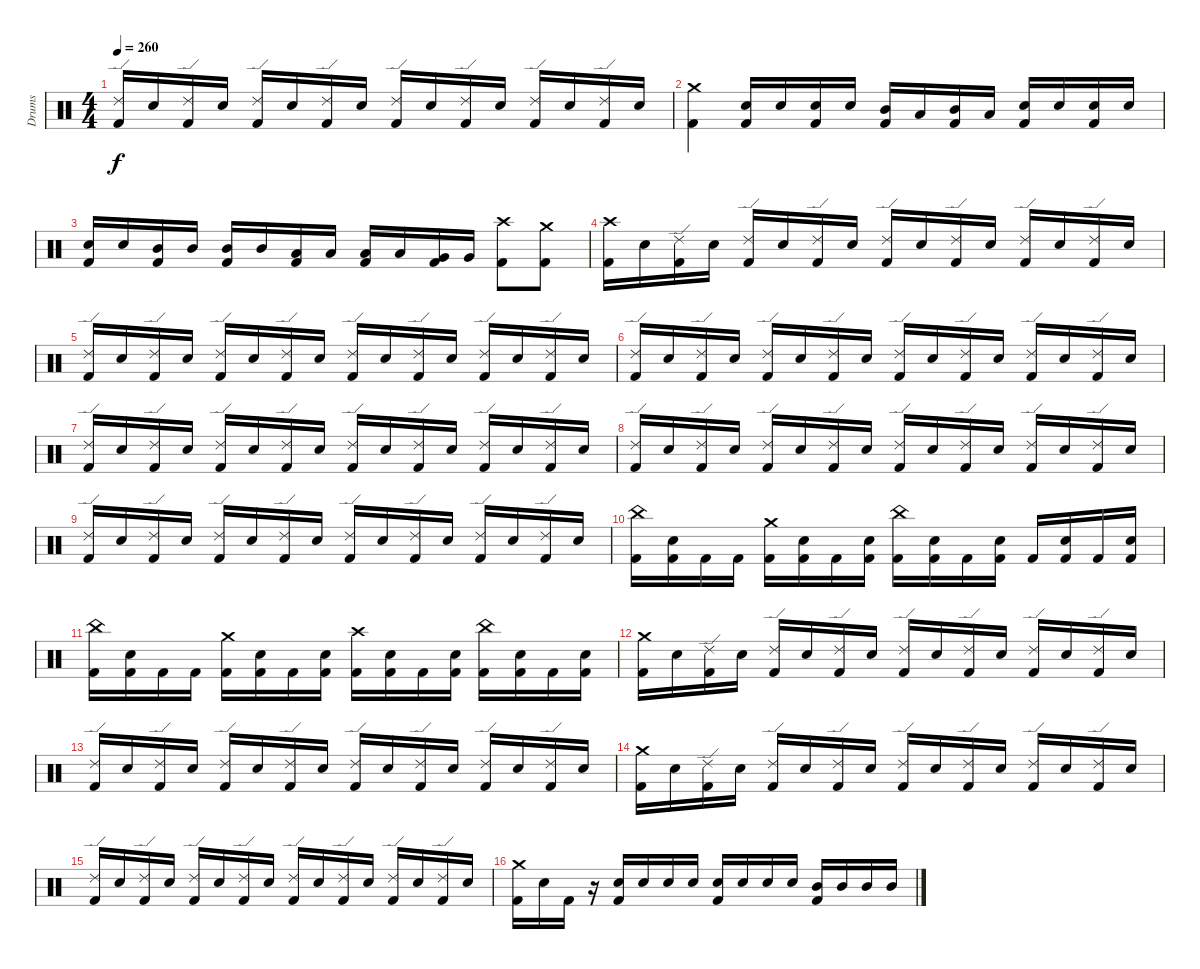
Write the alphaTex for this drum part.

\track ("Drums" "Drums") {instrument percussion}
\staff {score}
\articulation defaults
\ts (4 4)
\tempo 260
\clef neutral
\ks c
("Ride (edge) 2" "Kick (hit) 2").16{dy f} "Snare (hit) 2".16 ("Ride (edge) 2" "Kick (hit) 2").16 "Snare (hit) 2".16 ("Ride (edge) 2" "Kick (hit) 2").16 "Snare (hit) 2".16 ("Ride (edge) 2" "Kick (hit) 2").16 "Snare (hit) 2".16 ("Ride (edge) 2" "Kick (hit) 2").16 "Snare (hit) 2".16 ("Ride (edge) 2" "Kick (hit) 2").16 "Snare (hit) 2".16 ("Ride (edge) 2" "Kick (hit) 2").16 "Snare (hit) 2".16 ("Ride (edge) 2" "Kick (hit) 2").16 "Snare (hit) 2".16 |
("Crash medium (hit)" "Kick (hit) 2").4 ("Snare (hit) 2" "Kick (hit) 2").16 "Snare (hit) 2".16 ("Snare (hit) 2" "Kick (hit) 2").16 "Snare (hit) 2".16 ("Mid Tom (hit)" "Kick (hit) 2").16 "Low Tom (hit)".16 ("Mid Tom (hit)" "Kick (hit) 2").16 "Low Tom (hit)".16 ("Snare (hit) 2" "Kick (hit) 2").16 "Snare (hit) 2".16 ("Snare (hit) 2" "Kick (hit) 2").16 "Snare (hit) 2".16 |
("Snare (hit) 2" "Kick (hit) 2").16 "Snare (hit) 2".16 ("Mid Tom (hit)" "Kick (hit) 2").16 "Mid Tom (hit)".16 ("Mid Tom (hit)" "Kick (hit) 2").16 "Mid Tom (hit)".16 ("Low Tom (hit)" "Kick (hit) 2").16 "Low Tom (hit)".16 ("Low Tom (hit)" "Kick (hit) 2").16 "Low Tom (hit)".16 ("Very Low Tom (hit)" "Kick (hit) 2").16 "Very Low Tom (hit)".16 ("Crash high (hit)" "Kick (hit) 2").8 ("Crash medium (hit)" "Kick (hit) 2").8 |
("Crash high (hit)" "Kick (hit) 2").16 "Snare (hit) 2".16 ("Ride (edge) 2" "Kick (hit) 2").16 "Snare (hit) 2".16 ("Ride (edge) 2" "Kick (hit) 2").16 "Snare (hit) 2".16 ("Ride (edge) 2" "Kick (hit) 2").16 "Snare (hit) 2".16 ("Ride (edge) 2" "Kick (hit) 2").16 "Snare (hit) 2".16 ("Ride (edge) 2" "Kick (hit) 2").16 "Snare (hit) 2".16 ("Ride (edge) 2" "Kick (hit) 2").16 "Snare (hit) 2".16 ("Ride (edge) 2" "Kick (hit) 2").16 "Snare (hit) 2".16 |
("Ride (edge) 2" "Kick (hit) 2").16 "Snare (hit) 2".16 ("Ride (edge) 2" "Kick (hit) 2").16 "Snare (hit) 2".16 ("Ride (edge) 2" "Kick (hit) 2").16 "Snare (hit) 2".16 ("Ride (edge) 2" "Kick (hit) 2").16 "Snare (hit) 2".16 ("Ride (edge) 2" "Kick (hit) 2").16 "Snare (hit) 2".16 ("Ride (edge) 2" "Kick (hit) 2").16 "Snare (hit) 2".16 ("Ride (edge) 2" "Kick (hit) 2").16 "Snare (hit) 2".16 ("Ride (edge) 2" "Kick (hit) 2").16 "Snare (hit) 2".16 |
("Ride (edge) 2" "Kick (hit) 2").16 "Snare (hit) 2".16 ("Ride (edge) 2" "Kick (hit) 2").16 "Snare (hit) 2".16 ("Ride (edge) 2" "Kick (hit) 2").16 "Snare (hit) 2".16 ("Ride (edge) 2" "Kick (hit) 2").16 "Snare (hit) 2".16 ("Ride (edge) 2" "Kick (hit) 2").16 "Snare (hit) 2".16 ("Ride (edge) 2" "Kick (hit) 2").16 "Snare (hit) 2".16 ("Ride (edge) 2" "Kick (hit) 2").16 "Snare (hit) 2".16 ("Ride (edge) 2" "Kick (hit) 2").16 "Snare (hit) 2".16 |
("Ride (edge) 2" "Kick (hit) 2").16 "Snare (hit) 2".16 ("Ride (edge) 2" "Kick (hit) 2").16 "Snare (hit) 2".16 ("Ride (edge) 2" "Kick (hit) 2").16 "Snare (hit) 2".16 ("Ride (edge) 2" "Kick (hit) 2").16 "Snare (hit) 2".16 ("Ride (edge) 2" "Kick (hit) 2").16 "Snare (hit) 2".16 ("Ride (edge) 2" "Kick (hit) 2").16 "Snare (hit) 2".16 ("Ride (edge) 2" "Kick (hit) 2").16 "Snare (hit) 2".16 ("Ride (edge) 2" "Kick (hit) 2").16 "Snare (hit) 2".16 |
("Ride (edge) 2" "Kick (hit) 2").16 "Snare (hit) 2".16 ("Ride (edge) 2" "Kick (hit) 2").16 "Snare (hit) 2".16 ("Ride (edge) 2" "Kick (hit) 2").16 "Snare (hit) 2".16 ("Ride (edge) 2" "Kick (hit) 2").16 "Snare (hit) 2".16 ("Ride (edge) 2" "Kick (hit) 2").16 "Snare (hit) 2".16 ("Ride (edge) 2" "Kick (hit) 2").16 "Snare (hit) 2".16 ("Ride (edge) 2" "Kick (hit) 2").16 "Snare (hit) 2".16 ("Ride (edge) 2" "Kick (hit) 2").16 "Snare (hit) 2".16 |
("Ride (edge) 2" "Kick (hit) 2").16 "Snare (hit) 2".16 ("Ride (edge) 2" "Kick (hit) 2").16 "Snare (hit) 2".16 ("Ride (edge) 2" "Kick (hit) 2").16 "Snare (hit) 2".16 ("Ride (edge) 2" "Kick (hit) 2").16 "Snare (hit) 2".16 ("Ride (edge) 2" "Kick (hit) 2").16 "Snare (hit) 2".16 ("Ride (edge) 2" "Kick (hit) 2").16 "Snare (hit) 2".16 ("Ride (edge) 2" "Kick (hit) 2").16 "Snare (hit) 2".16 ("Ride (edge) 2" "Kick (hit) 2").16 "Snare (hit) 2".16 |
("China (hit)" "Kick (hit) 2").16 ("Snare (hit) 2" "Kick (hit) 2").16 "Kick (hit) 2".16 "Kick (hit) 2".16 ("Crash medium (hit)" "Kick (hit) 2").16 ("Snare (hit) 2" "Kick (hit) 2").16 "Kick (hit) 2".16 ("Snare (hit) 2" "Kick (hit) 2").16 ("China (hit)" "Kick (hit) 2").16 ("Snare (hit) 2" "Kick (hit) 2").16 "Kick (hit) 2".16 ("Snare (hit) 2" "Kick (hit) 2").16 "Kick (hit) 2".16 ("Snare (hit) 2" "Kick (hit) 2").16 "Kick (hit) 2".16 ("Snare (hit) 2" "Kick (hit) 2").16 |
("China (hit)" "Kick (hit) 2").16 ("Snare (hit) 2" "Kick (hit) 2").16 "Kick (hit) 2".16 "Kick (hit) 2".16 ("Crash medium (hit)" "Kick (hit) 2").16 ("Snare (hit) 2" "Kick (hit) 2").16 "Kick (hit) 2".16 ("Snare (hit) 2" "Kick (hit) 2").16 ("Crash high (hit)" "Kick (hit) 2").16 ("Snare (hit) 2" "Kick (hit) 2").16 "Kick (hit) 2".16 ("Snare (hit) 2" "Kick (hit) 2").16 ("China (hit)" "Kick (hit) 2").16 ("Snare (hit) 2" "Kick (hit) 2").16 "Kick (hit) 2".16 ("Snare (hit) 2" "Kick (hit) 2").16 |
("Crash medium (hit)" "Kick (hit) 2").16 "Snare (hit) 2".16 ("Ride (edge) 2" "Kick (hit) 2").16 "Snare (hit) 2".16 ("Ride (edge) 2" "Kick (hit) 2").16 "Snare (hit) 2".16 ("Ride (edge) 2" "Kick (hit) 2").16 "Snare (hit) 2".16 ("Ride (edge) 2" "Kick (hit) 2").16 "Snare (hit) 2".16 ("Ride (edge) 2" "Kick (hit) 2").16 "Snare (hit) 2".16 ("Ride (edge) 2" "Kick (hit) 2").16 "Snare (hit) 2".16 ("Ride (edge) 2" "Kick (hit) 2").16 "Snare (hit) 2".16 |
("Ride (edge) 2" "Kick (hit) 2").16 "Snare (hit) 2".16 ("Ride (edge) 2" "Kick (hit) 2").16 "Snare (hit) 2".16 ("Ride (edge) 2" "Kick (hit) 2").16 "Snare (hit) 2".16 ("Ride (edge) 2" "Kick (hit) 2").16 "Snare (hit) 2".16 ("Ride (edge) 2" "Kick (hit) 2").16 "Snare (hit) 2".16 ("Ride (edge) 2" "Kick (hit) 2").16 "Snare (hit) 2".16 ("Ride (edge) 2" "Kick (hit) 2").16 "Snare (hit) 2".16 ("Ride (edge) 2" "Kick (hit) 2").16 "Snare (hit) 2".16 |
("Crash medium (hit)" "Kick (hit) 2").16 "Snare (hit) 2".16 ("Ride (edge) 2" "Kick (hit) 2").16 "Snare (hit) 2".16 ("Ride (edge) 2" "Kick (hit) 2").16 "Snare (hit) 2".16 ("Ride (edge) 2" "Kick (hit) 2").16 "Snare (hit) 2".16 ("Ride (edge) 2" "Kick (hit) 2").16 "Snare (hit) 2".16 ("Ride (edge) 2" "Kick (hit) 2").16 "Snare (hit) 2".16 ("Ride (edge) 2" "Kick (hit) 2").16 "Snare (hit) 2".16 ("Ride (edge) 2" "Kick (hit) 2").16 "Snare (hit) 2".16 |
("Ride (edge) 2" "Kick (hit) 2").16 "Snare (hit) 2".16 ("Ride (edge) 2" "Kick (hit) 2").16 "Snare (hit) 2".16 ("Ride (edge) 2" "Kick (hit) 2").16 "Snare (hit) 2".16 ("Ride (edge) 2" "Kick (hit) 2").16 "Snare (hit) 2".16 ("Ride (edge) 2" "Kick (hit) 2").16 "Snare (hit) 2".16 ("Ride (edge) 2" "Kick (hit) 2").16 "Snare (hit) 2".16 ("Ride (edge) 2" "Kick (hit) 2").16 "Snare (hit) 2".16 ("Ride (edge) 2" "Kick (hit) 2").16 "Snare (hit) 2".16 |
("Crash medium (hit)" "Kick (hit) 2").16 "Snare (hit) 2".16 "Kick (hit) 2".16 r.16 ("Snare (hit) 2" "Kick (hit) 2").16 "Snare (hit) 2".16 "Snare (hit) 2".16 "Snare (hit) 2".16 ("Snare (hit) 2" "Kick (hit) 2").16 "Snare (hit) 2".16 "Snare (hit) 2".16 "Snare (hit) 2".16 ("Mid Tom (hit)" "Kick (hit) 2").16 "Mid Tom (hit)".16 "Mid Tom (hit)".16 "Mid Tom (hit)".16
